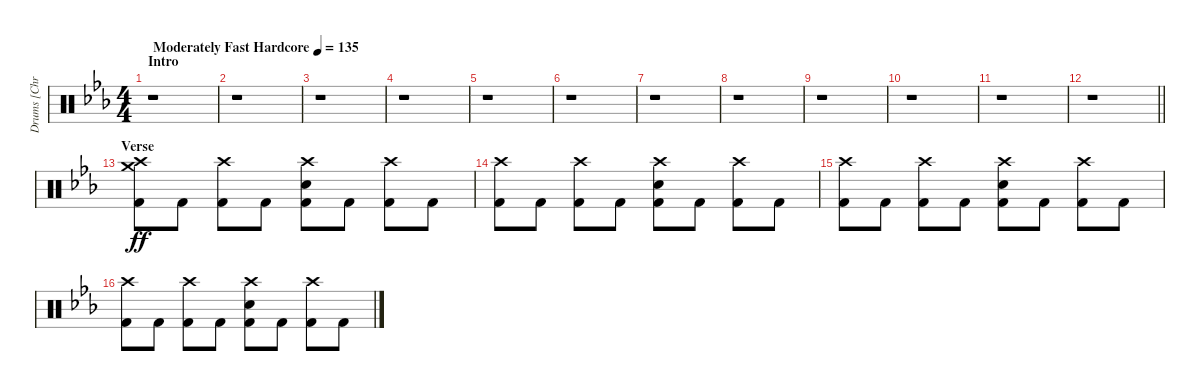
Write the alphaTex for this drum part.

\track ("Drums [Chris Hornbrook]" "Drums [Chr") {instrument percussion}
\staff {score}
\articulation defaults
\ts (4 4)
\section ("" "Intro")
\tempo (135 "Moderately Fast Hardcore")
\clef neutral
\ks cminor
r.1{dy ff} |
r.1 |
r.1 |
r.1 |
r.1 |
r.1 |
r.1 |
r.1 |
r.1 |
r.1 |
r.1 |
\barLineRight lightlight
r.1 |
\section ("" "Verse")
("Crash medium (hit)" "Crash high (hit)" "Kick (hit) 2").8 "Kick (hit) 2".8 ("Crash high (hit)" "Kick (hit) 2").8 "Kick (hit) 2".8 ("Crash high (hit)" "Electric Snare (hit)" "Kick (hit) 2").8 "Kick (hit) 2".8 ("Crash high (hit)" "Kick (hit) 2").8 "Kick (hit) 2".8 |
("Crash high (hit)" "Kick (hit) 2").8 "Kick (hit) 2".8 ("Crash high (hit)" "Kick (hit) 2").8 "Kick (hit) 2".8 ("Crash high (hit)" "Electric Snare (hit)" "Kick (hit) 2").8 "Kick (hit) 2".8 ("Crash high (hit)" "Kick (hit) 2").8 "Kick (hit) 2".8 |
("Crash high (hit)" "Kick (hit) 2").8 "Kick (hit) 2".8 ("Crash high (hit)" "Kick (hit) 2").8 "Kick (hit) 2".8 ("Crash high (hit)" "Electric Snare (hit)" "Kick (hit) 2").8 "Kick (hit) 2".8 ("Crash high (hit)" "Kick (hit) 2").8 "Kick (hit) 2".8 |
("Crash high (hit)" "Kick (hit) 2").8 "Kick (hit) 2".8 ("Crash high (hit)" "Kick (hit) 2").8 "Kick (hit) 2".8 ("Crash high (hit)" "Electric Snare (hit)" "Kick (hit) 2").8 "Kick (hit) 2".8 ("Crash high (hit)" "Kick (hit) 2").8 "Kick (hit) 2".8
